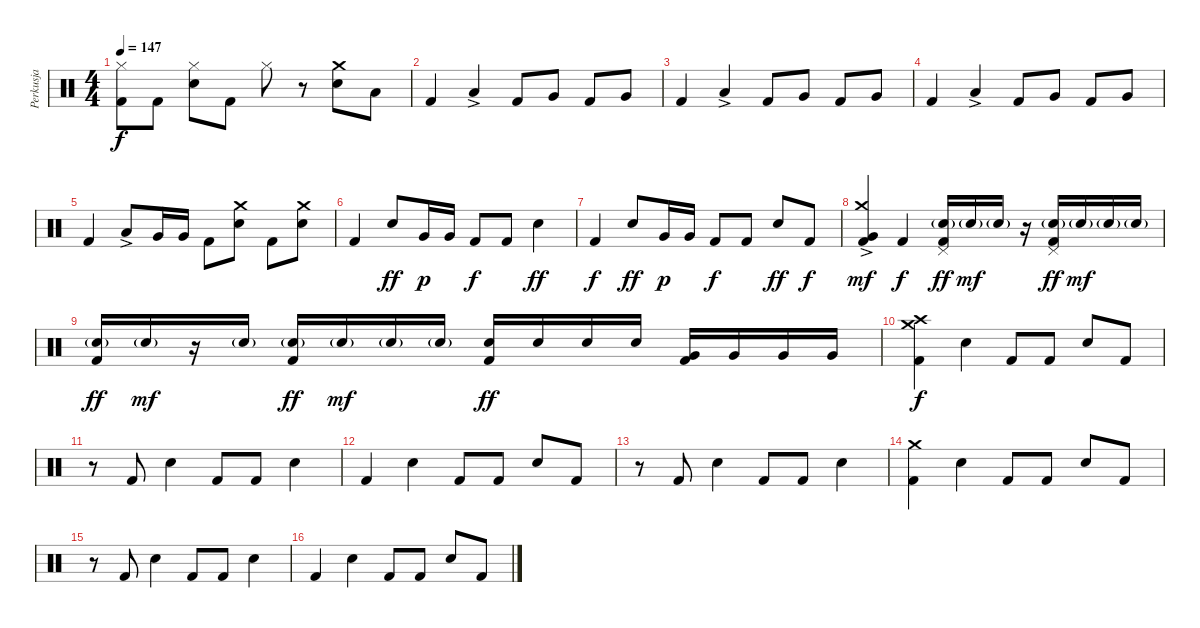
\track ("Perkusja" "Perkusja") {instrument percussion}
\staff {score}
\articulation defaults
\ts (4 4)
\tempo 147
\clef neutral
\ks c
("Hi-Hat (closed)" "Kick (hit) 2").8{dy f} "Kick (hit) 2".8 ("Hi-Hat (closed)" "Electric Snare (hit)").8 "Kick (hit) 2".8 "Hi-Hat (closed)".8 r.8 ("Crash medium (hit)" "Electric Snare (hit)").8 "Low Floor Tom (hit)".8 |
"Kick (hit) 2".4 "Low Floor Tom (hit)"{ac}.4 "Kick (hit) 2".8 "Very Low Tom (hit)".8 "Kick (hit) 2".8 "Very Low Tom (hit)".8 |
"Kick (hit) 2".4 "Low Floor Tom (hit)"{ac}.4 "Kick (hit) 2".8 "Very Low Tom (hit)".8 "Kick (hit) 2".8 "Very Low Tom (hit)".8 |
"Kick (hit) 2".4 "Low Floor Tom (hit)"{ac}.4 "Kick (hit) 2".8 "Very Low Tom (hit)".8 "Kick (hit) 2".8 "Very Low Tom (hit)".8 |
"Kick (hit) 2".4 "Low Floor Tom (hit)"{ac}.8 "Very Low Tom (hit)".16 "Very Low Tom (hit)".16 "Kick (hit) 2".8 ("Crash medium (hit)" "Electric Snare (hit)").8 "Kick (hit) 2".8 ("Crash medium (hit)" "Electric Snare (hit)").8 |
"Kick (hit) 2".4 "Electric Snare (hit)".8{dy ff} "Very Low Tom (hit)".16{dy p} "Very Low Tom (hit)".16 "Kick (hit) 2".8{dy f} "Kick (hit) 2".8 "Electric Snare (hit)".4{dy ff} |
"Kick (hit) 2".4{dy f} "Electric Snare (hit)".8{dy ff} "Very Low Tom (hit)".16{dy p} "Very Low Tom (hit)".16 "Kick (hit) 2".8{dy f} "Kick (hit) 2".8 "Electric Snare (hit)".8{dy ff} "Kick (hit) 2".8{dy f} |
("Crash medium (hit)"{ac} "Very Low Tom (hit)"{ac} "Kick (hit) 2"{ac}).4{dy mf} "Kick (hit) 2".4{dy f} ("Pedal Hi-Hat (hit)" "Electric Snare (hit)"{g} "Kick (hit) 2").16{dy ff} "Electric Snare (hit)"{g}.16{dy mf} "Electric Snare (hit)"{g}.16 r.16 ("Pedal Hi-Hat (hit)" "Electric Snare (hit)"{g} "Kick (hit) 2").16{dy ff} "Electric Snare (hit)"{g}.16{dy mf} "Electric Snare (hit)"{g}.16 "Electric Snare (hit)"{g}.16 |
("Electric Snare (hit)"{g} "Kick (hit) 2").16{dy ff} "Electric Snare (hit)"{g}.16{dy mf} r.16 "Electric Snare (hit)"{g}.16 ("Electric Snare (hit)"{g} "Kick (hit) 2").16{dy ff} "Electric Snare (hit)"{g}.16{dy mf} "Electric Snare (hit)"{g}.16 "Electric Snare (hit)"{g}.16 ("Electric Snare (hit)" "Kick (hit) 2").16{dy ff} "Electric Snare (hit)".16 "Electric Snare (hit)".16 "Electric Snare (hit)".16 ("Very Low Tom (hit)" "Kick (hit) 2").16 "Very Low Tom (hit)".16 "Very Low Tom (hit)".16 "Very Low Tom (hit)".16 |
("Crash medium (hit)" "Crash high (hit)" "Kick (hit) 2").4{dy f} "Electric Snare (hit)".4 "Kick (hit) 2".8 "Kick (hit) 2".8 "Electric Snare (hit)".8 "Kick (hit) 2".8 |
r.8 "Kick (hit) 2".8 "Electric Snare (hit)".4 "Kick (hit) 2".8 "Kick (hit) 2".8 "Electric Snare (hit)".4 |
"Kick (hit) 2".4 "Electric Snare (hit)".4 "Kick (hit) 2".8 "Kick (hit) 2".8 "Electric Snare (hit)".8 "Kick (hit) 2".8 |
r.8 "Kick (hit) 2".8 "Electric Snare (hit)".4 "Kick (hit) 2".8 "Kick (hit) 2".8 "Electric Snare (hit)".4 |
("Crash medium (hit)" "Kick (hit) 2").4 "Electric Snare (hit)".4 "Kick (hit) 2".8 "Kick (hit) 2".8 "Electric Snare (hit)".8 "Kick (hit) 2".8 |
r.8 "Kick (hit) 2".8 "Electric Snare (hit)".4 "Kick (hit) 2".8 "Kick (hit) 2".8 "Electric Snare (hit)".4 |
"Kick (hit) 2".4 "Electric Snare (hit)".4 "Kick (hit) 2".8 "Kick (hit) 2".8 "Electric Snare (hit)".8 "Kick (hit) 2".8
